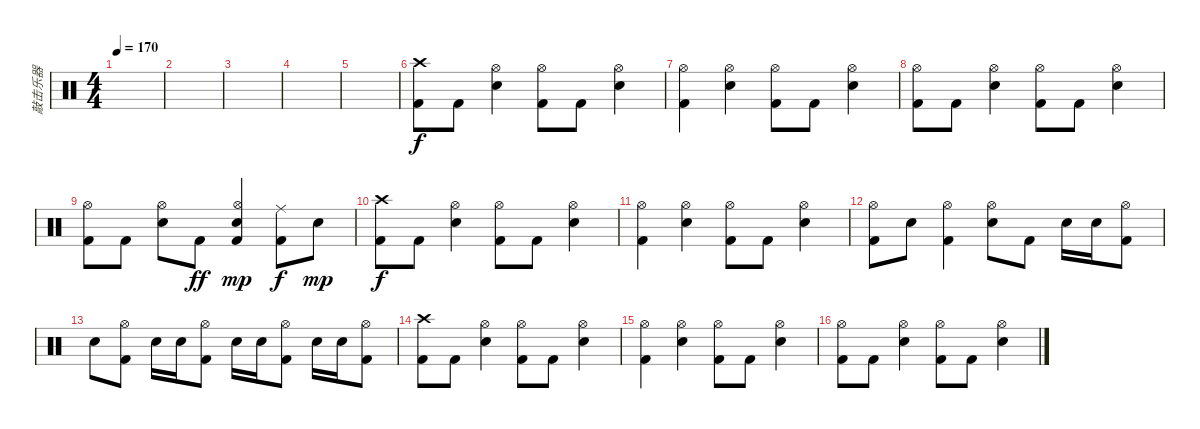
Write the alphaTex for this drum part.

\track ("敲击乐器" "敲击乐器") {instrument percussion}
\staff {score}
\articulation defaults
\ts (4 4)
\tempo 170
\clef neutral
\ks c
|
|
|
|
|
("Crash high (hit)" "Kick (hit) 2").8 "Kick (hit) 2".8 ("Hi-Hat (open)" "Snare (hit) 2").4 ("Hi-Hat (open)" "Kick (hit) 2").8 "Kick (hit) 2".8 ("Hi-Hat (open)" "Snare (hit) 2").4 |
("Hi-Hat (open)" "Kick (hit) 2").4 ("Hi-Hat (open)" "Snare (hit) 2").4 ("Hi-Hat (open)" "Kick (hit) 2").8 "Kick (hit) 2".8 ("Hi-Hat (open)" "Snare (hit) 2").4 |
("Hi-Hat (open)" "Kick (hit) 2").8 "Kick (hit) 2".8 ("Hi-Hat (open)" "Snare (hit) 2").4 ("Hi-Hat (open)" "Kick (hit) 2").8 "Kick (hit) 2".8 ("Hi-Hat (open)" "Snare (hit) 2").4 |
("Hi-Hat (open)" "Kick (hit) 2").8 "Kick (hit) 2".8 ("Hi-Hat (open)" "Snare (hit) 2").8 "Kick (hit) 2".8{dy ff} ("Hi-Hat (open)" "Snare (hit) 2" "Kick (hit) 2").4{dy mp} ("Ride (middle)" "Kick (hit) 2").8{dy f} "Snare (hit) 2".8{dy mp} |
("Crash high (hit)" "Kick (hit) 2").8{dy f} "Kick (hit) 2".8 ("Hi-Hat (open)" "Snare (hit) 2").4 ("Hi-Hat (open)" "Kick (hit) 2").8 "Kick (hit) 2".8 ("Hi-Hat (open)" "Snare (hit) 2").4 |
("Hi-Hat (open)" "Kick (hit) 2").4 ("Hi-Hat (open)" "Snare (hit) 2").4 ("Hi-Hat (open)" "Kick (hit) 2").8 "Kick (hit) 2".8 ("Hi-Hat (open)" "Snare (hit) 2").4 |
("Hi-Hat (open)" "Kick (hit) 2").8 "Snare (hit) 2".8 ("Hi-Hat (open)" "Kick (hit) 2").4 ("Hi-Hat (open)" "Snare (hit) 2").8 "Kick (hit) 2".8 "Snare (hit) 2".16 "Snare (hit) 2".16 ("Hi-Hat (open)" "Kick (hit) 2").8 |
"Snare (hit) 2".8 ("Hi-Hat (open)" "Kick (hit) 2").8 "Snare (hit) 2".16 "Snare (hit) 2".16 ("Hi-Hat (open)" "Kick (hit) 2").8 "Snare (hit) 2".16 "Snare (hit) 2".16 ("Hi-Hat (open)" "Kick (hit) 2").8 "Snare (hit) 2".16 "Snare (hit) 2".16 ("Hi-Hat (open)" "Kick (hit) 2").8 |
("Crash high (hit)" "Kick (hit) 2").8 "Kick (hit) 2".8 ("Hi-Hat (open)" "Snare (hit) 2").4 ("Hi-Hat (open)" "Kick (hit) 2").8 "Kick (hit) 2".8 ("Hi-Hat (open)" "Snare (hit) 2").4 |
("Hi-Hat (open)" "Kick (hit) 2").4 ("Hi-Hat (open)" "Snare (hit) 2").4 ("Hi-Hat (open)" "Kick (hit) 2").8 "Kick (hit) 2".8 ("Hi-Hat (open)" "Snare (hit) 2").4 |
("Hi-Hat (open)" "Kick (hit) 2").8 "Kick (hit) 2".8 ("Hi-Hat (open)" "Snare (hit) 2").4 ("Hi-Hat (open)" "Kick (hit) 2").8 "Kick (hit) 2".8 ("Hi-Hat (open)" "Snare (hit) 2").4
